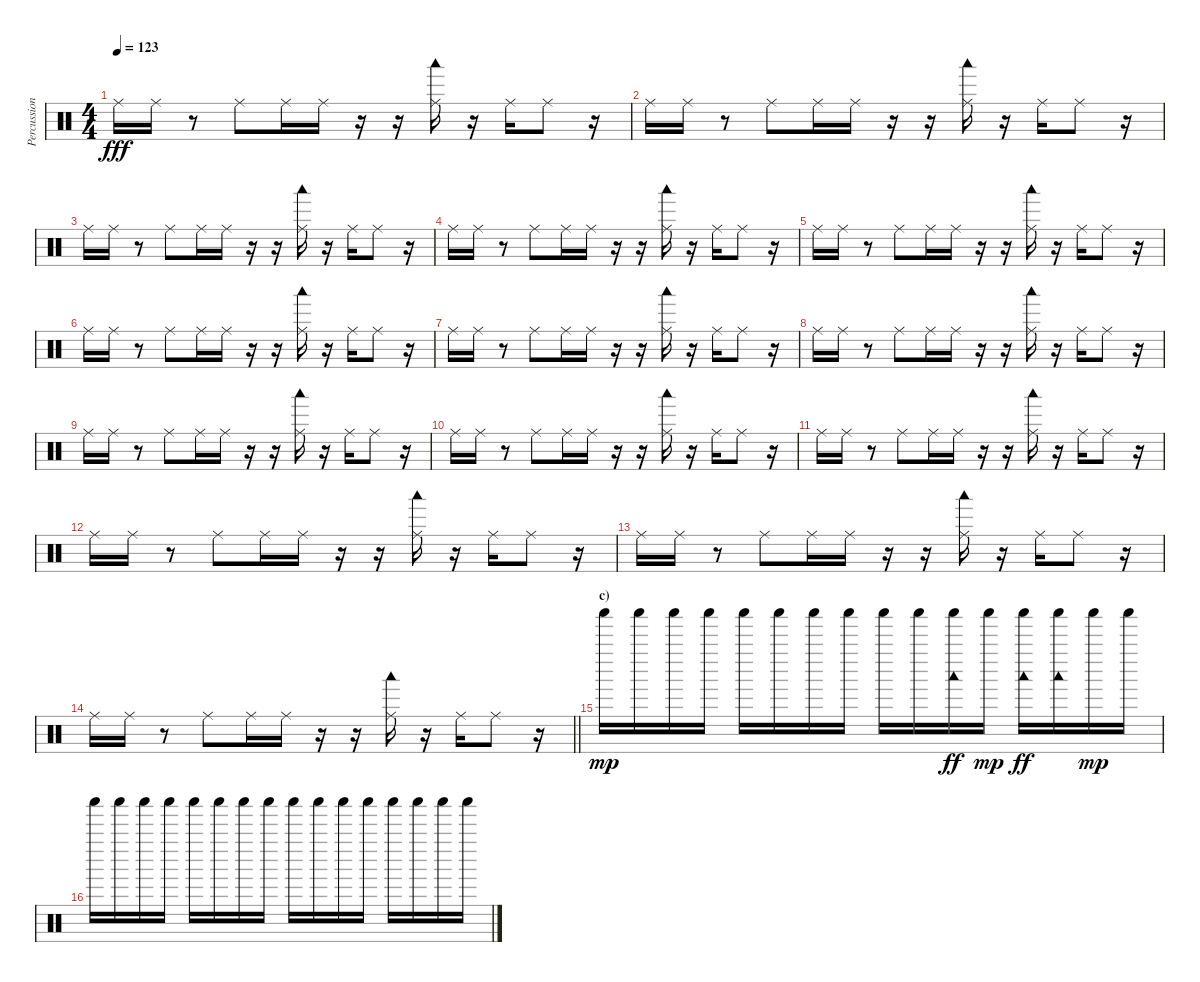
\track ("Percussion" "Percussion") {instrument percussion}
\staff {score}
\articulation defaults
\ts (4 4)
\tempo 123
\clef neutral
\ks c "Ride (middle)".16{dy fff} "Ride (middle)".16
r.8 "Ride (middle)".8 "Ride (middle)".16 "Ride (middle)".16 r.16 r.16 ("Ride (middle)" "Woodblock low (hit)").16 r.16 "Ride (middle)".16 "Ride (middle)".8 r.16 |
"Ride (middle)".16 "Ride (middle)".16 r.8 "Ride (middle)".8 "Ride (middle)".16 "Ride (middle)".16 r.16 r.16 ("Ride (middle)" "Woodblock low (hit)").16 r.16 "Ride (middle)".16 "Ride (middle)".8 r.16 |
"Ride (middle)".16 "Ride (middle)".16 r.8 "Ride (middle)".8 "Ride (middle)".16 "Ride (middle)".16 r.16 r.16 ("Ride (middle)" "Woodblock low (hit)").16 r.16 "Ride (middle)".16 "Ride (middle)".8 r.16 |
"Ride (middle)".16 "Ride (middle)".16 r.8 "Ride (middle)".8 "Ride (middle)".16 "Ride (middle)".16 r.16 r.16 ("Ride (middle)" "Woodblock low (hit)").16 r.16 "Ride (middle)".16 "Ride (middle)".8 r.16 |
"Ride (middle)".16 "Ride (middle)".16 r.8 "Ride (middle)".8 "Ride (middle)".16 "Ride (middle)".16 r.16 r.16 ("Ride (middle)" "Woodblock low (hit)").16 r.16 "Ride (middle)".16 "Ride (middle)".8 r.16 |
"Ride (middle)".16 "Ride (middle)".16 r.8 "Ride (middle)".8 "Ride (middle)".16 "Ride (middle)".16 r.16 r.16 ("Ride (middle)" "Woodblock low (hit)").16 r.16 "Ride (middle)".16 "Ride (middle)".8 r.16 |
"Ride (middle)".16 "Ride (middle)".16 r.8 "Ride (middle)".8 "Ride (middle)".16 "Ride (middle)".16 r.16 r.16 ("Ride (middle)" "Woodblock low (hit)").16 r.16 "Ride (middle)".16 "Ride (middle)".8 r.16 |
"Ride (middle)".16 "Ride (middle)".16 r.8 "Ride (middle)".8 "Ride (middle)".16 "Ride (middle)".16 r.16 r.16 ("Ride (middle)" "Woodblock low (hit)").16 r.16 "Ride (middle)".16 "Ride (middle)".8 r.16 |
"Ride (middle)".16 "Ride (middle)".16 r.8 "Ride (middle)".8 "Ride (middle)".16 "Ride (middle)".16 r.16 r.16 ("Ride (middle)" "Woodblock low (hit)").16 r.16 "Ride (middle)".16 "Ride (middle)".8 r.16 |
"Ride (middle)".16 "Ride (middle)".16 r.8 "Ride (middle)".8 "Ride (middle)".16 "Ride (middle)".16 r.16 r.16 ("Ride (middle)" "Woodblock low (hit)").16 r.16 "Ride (middle)".16 "Ride (middle)".8 r.16 |
"Ride (middle)".16 "Ride (middle)".16 r.8 "Ride (middle)".8 "Ride (middle)".16 "Ride (middle)".16 r.16 r.16 ("Ride (middle)" "Woodblock low (hit)").16 r.16 "Ride (middle)".16 "Ride (middle)".8 r.16 |
"Ride (middle)".16 "Ride (middle)".16 r.8 "Ride (middle)".8 "Ride (middle)".16 "Ride (middle)".16 r.16 r.16 ("Ride (middle)" "Woodblock low (hit)").16 r.16 "Ride (middle)".16 "Ride (middle)".8 r.16 |
"Ride (middle)".16 "Ride (middle)".16 r.8 "Ride (middle)".8 "Ride (middle)".16 "Ride (middle)".16 r.16 r.16 ("Ride (middle)" "Woodblock low (hit)").16 r.16 "Ride (middle)".16 "Ride (middle)".8 r.16 |
\barLineRight lightlight "Ride (middle)".16 "Ride (middle)".16
r.8 "Ride (middle)".8 "Ride (middle)".16 "Ride (middle)".16 r.16 r.16 ("Ride (middle)" "Woodblock low (hit)").16 r.16 "Ride (middle)".16 "Ride (middle)".8 r.16 |
\section ("" "c)")
"Shaker (hit)".16{dy mp} "Shaker (hit)".16 "Shaker (hit)".16 "Shaker (hit)".16 "Shaker (hit)".16 "Shaker (hit)".16 "Shaker (hit)".16 "Shaker (hit)".16 "Shaker (hit)".16 "Shaker (hit)".16 ("Shaker (hit)" "Woodblock low (hit)").16{dy ff} "Shaker (hit)".16{dy mp} ("Shaker (hit)" "Woodblock low (hit)").16{dy ff} ("Shaker (hit)" "Woodblock low (hit)").16 "Shaker (hit)".16{dy mp} "Shaker (hit)".16 |
"Shaker (hit)".16 "Shaker (hit)".16 "Shaker (hit)".16 "Shaker (hit)".16 "Shaker (hit)".16 "Shaker (hit)".16 "Shaker (hit)".16 "Shaker (hit)".16 "Shaker (hit)".16 "Shaker (hit)".16 "Shaker (hit)".16 "Shaker (hit)".16 "Shaker (hit)".16 "Shaker (hit)".16 "Shaker (hit)".16 "Shaker (hit)".16
